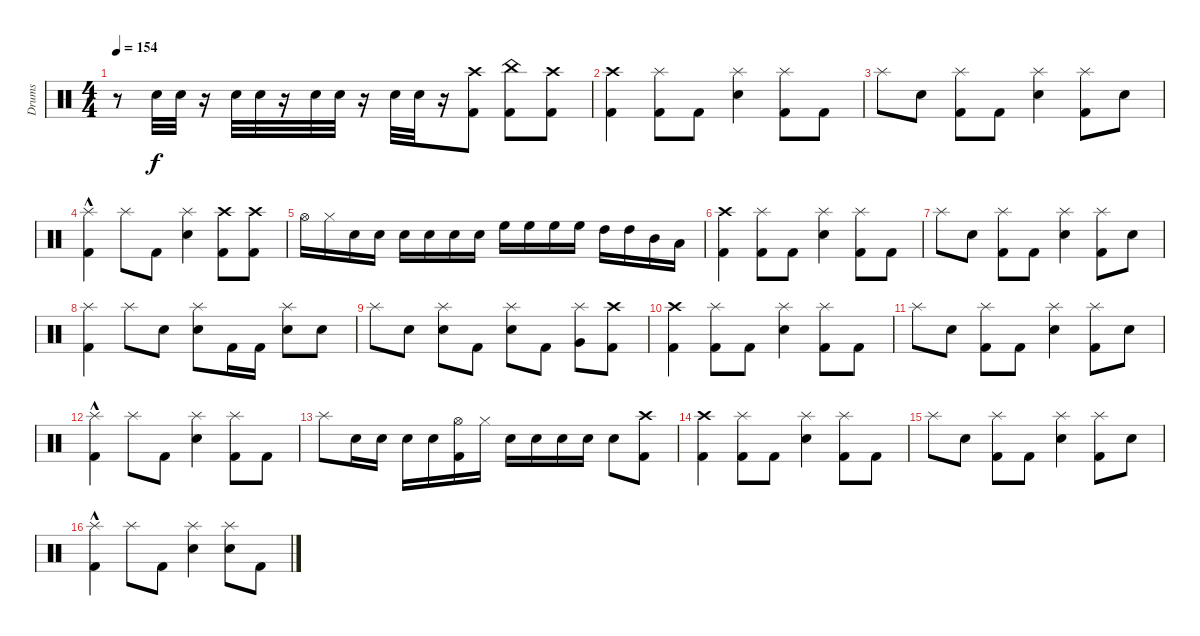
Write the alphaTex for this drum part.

\track ("Drums" "Drums") {instrument percussion}
\staff {score}
\articulation defaults
\ts (4 4)
\tempo 154
\clef neutral
\ks c
r.8{dy f} "Electric Snare (hit)".32 "Electric Snare (hit)".32 r.16 "Electric Snare (hit)".32 "Electric Snare (hit)".32 r.16 "Electric Snare (hit)".32 "Electric Snare (hit)".32 r.16 "Electric Snare (hit)".32 "Electric Snare (hit)".32 r.16 ("Kick (hit) 2" "Crash high (hit)").8 ("Kick (hit) 2" "China (hit)").8 ("Kick (hit) 2" "Crash high (hit)").8 |
("Kick (hit) 2" "Crash high (hit)").4 ("Kick (hit) 2" "Splash (hit)").8 "Kick (hit) 2".8 ("Electric Snare (hit)" "Splash (hit)").4 ("Kick (hit) 2" "Splash (hit)").8 "Kick (hit) 2".8 |
"Splash (hit)".8 "Electric Snare (hit)".8 ("Kick (hit) 2" "Splash (hit)").8 "Kick (hit) 2".8 ("Electric Snare (hit)" "Splash (hit)").4 ("Kick (hit) 2" "Splash (hit)").8 "Electric Snare (hit)".8 |
("Kick (hit) 2"{hac} "Splash (hit)").4 "Splash (hit)".8 "Kick (hit) 2".8 ("Electric Snare (hit)" "Splash (hit)").4 ("Kick (hit) 2" "Crash high (hit)").8 ("Kick (hit) 2" "Crash high (hit)").8 |
"Hi-Hat (open)".16 "Hi-Hat (closed)".16 "Electric Snare (hit)".16 "Electric Snare (hit)".16 "Electric Snare (hit)".16 "Electric Snare (hit)".16 "Electric Snare (hit)".16 "Electric Snare (hit)".16 "High Floor Tom (hit)".16 "High Floor Tom (hit)".16 "High Floor Tom (hit)".16 "High Floor Tom (hit)".16 "High Tom (hit)".16 "High Tom (hit)".16 "Mid Tom (hit)".16 "Low Tom (hit)".16 |
("Kick (hit) 2" "Crash high (hit)").4 ("Kick (hit) 2" "Splash (hit)").8 "Kick (hit) 2".8 ("Electric Snare (hit)" "Splash (hit)").4 ("Kick (hit) 2" "Splash (hit)").8 "Kick (hit) 2".8 |
"Splash (hit)".8 "Electric Snare (hit)".8 ("Kick (hit) 2" "Splash (hit)").8 "Kick (hit) 2".8 ("Electric Snare (hit)" "Splash (hit)").4 ("Kick (hit) 2" "Splash (hit)").8 "Electric Snare (hit)".8 |
("Kick (hit) 2" "Splash (hit)").4 "Splash (hit)".8 "Electric Snare (hit)".8 ("Electric Snare (hit)" "Splash (hit)").8 "Kick (hit) 2".16 "Kick (hit) 2".16 ("Electric Snare (hit)" "Splash (hit)").8 "Electric Snare (hit)".8 |
"Splash (hit)".8 "Electric Snare (hit)".8 ("Electric Snare (hit)" "Splash (hit)").8 "Kick (hit) 2".8 ("Electric Snare (hit)" "Splash (hit)").8 "Kick (hit) 2".8 ("Very Low Tom (hit)" "Splash (hit)").8 ("Kick (hit) 2" "Crash high (hit)").8 |
("Crash high (hit)" "Kick (hit) 2").4 ("Kick (hit) 2" "Splash (hit)").8 "Kick (hit) 2".8 ("Electric Snare (hit)" "Splash (hit)").4 ("Kick (hit) 2" "Splash (hit)").8 "Kick (hit) 2".8 |
"Splash (hit)".8 "Electric Snare (hit)".8 ("Kick (hit) 2" "Splash (hit)").8 "Kick (hit) 2".8 ("Electric Snare (hit)" "Splash (hit)").4 ("Kick (hit) 2" "Splash (hit)").8 "Electric Snare (hit)".8 |
("Kick (hit) 2"{hac} "Splash (hit)").4 "Splash (hit)".8 "Kick (hit) 2".8 ("Electric Snare (hit)" "Splash (hit)").4 ("Kick (hit) 2" "Splash (hit)").8 "Kick (hit) 2".8 |
"Splash (hit)".8 "Electric Snare (hit)".16 "Electric Snare (hit)".16 "Electric Snare (hit)".16 "Electric Snare (hit)".16 ("Hi-Hat (open)" "Kick (hit) 2").16 "Hi-Hat (closed)".16 "Electric Snare (hit)".16 "Electric Snare (hit)".16 "Electric Snare (hit)".16 "Electric Snare (hit)".16 "Electric Snare (hit)".8 ("Kick (hit) 2" "Crash high (hit)").8 |
("Kick (hit) 2" "Crash high (hit)").4 ("Kick (hit) 2" "Splash (hit)").8 "Kick (hit) 2".8 ("Electric Snare (hit)" "Splash (hit)").4 ("Kick (hit) 2" "Splash (hit)").8 "Kick (hit) 2".8 |
"Splash (hit)".8 "Electric Snare (hit)".8 ("Kick (hit) 2" "Splash (hit)").8 "Kick (hit) 2".8 ("Electric Snare (hit)" "Splash (hit)").4 ("Kick (hit) 2" "Splash (hit)").8 "Electric Snare (hit)".8 |
("Kick (hit) 2"{hac} "Splash (hit)").4 "Splash (hit)".8 "Kick (hit) 2".8 ("Electric Snare (hit)" "Splash (hit)").4 ("Electric Snare (hit)" "Splash (hit)").8 "Kick (hit) 2".8
